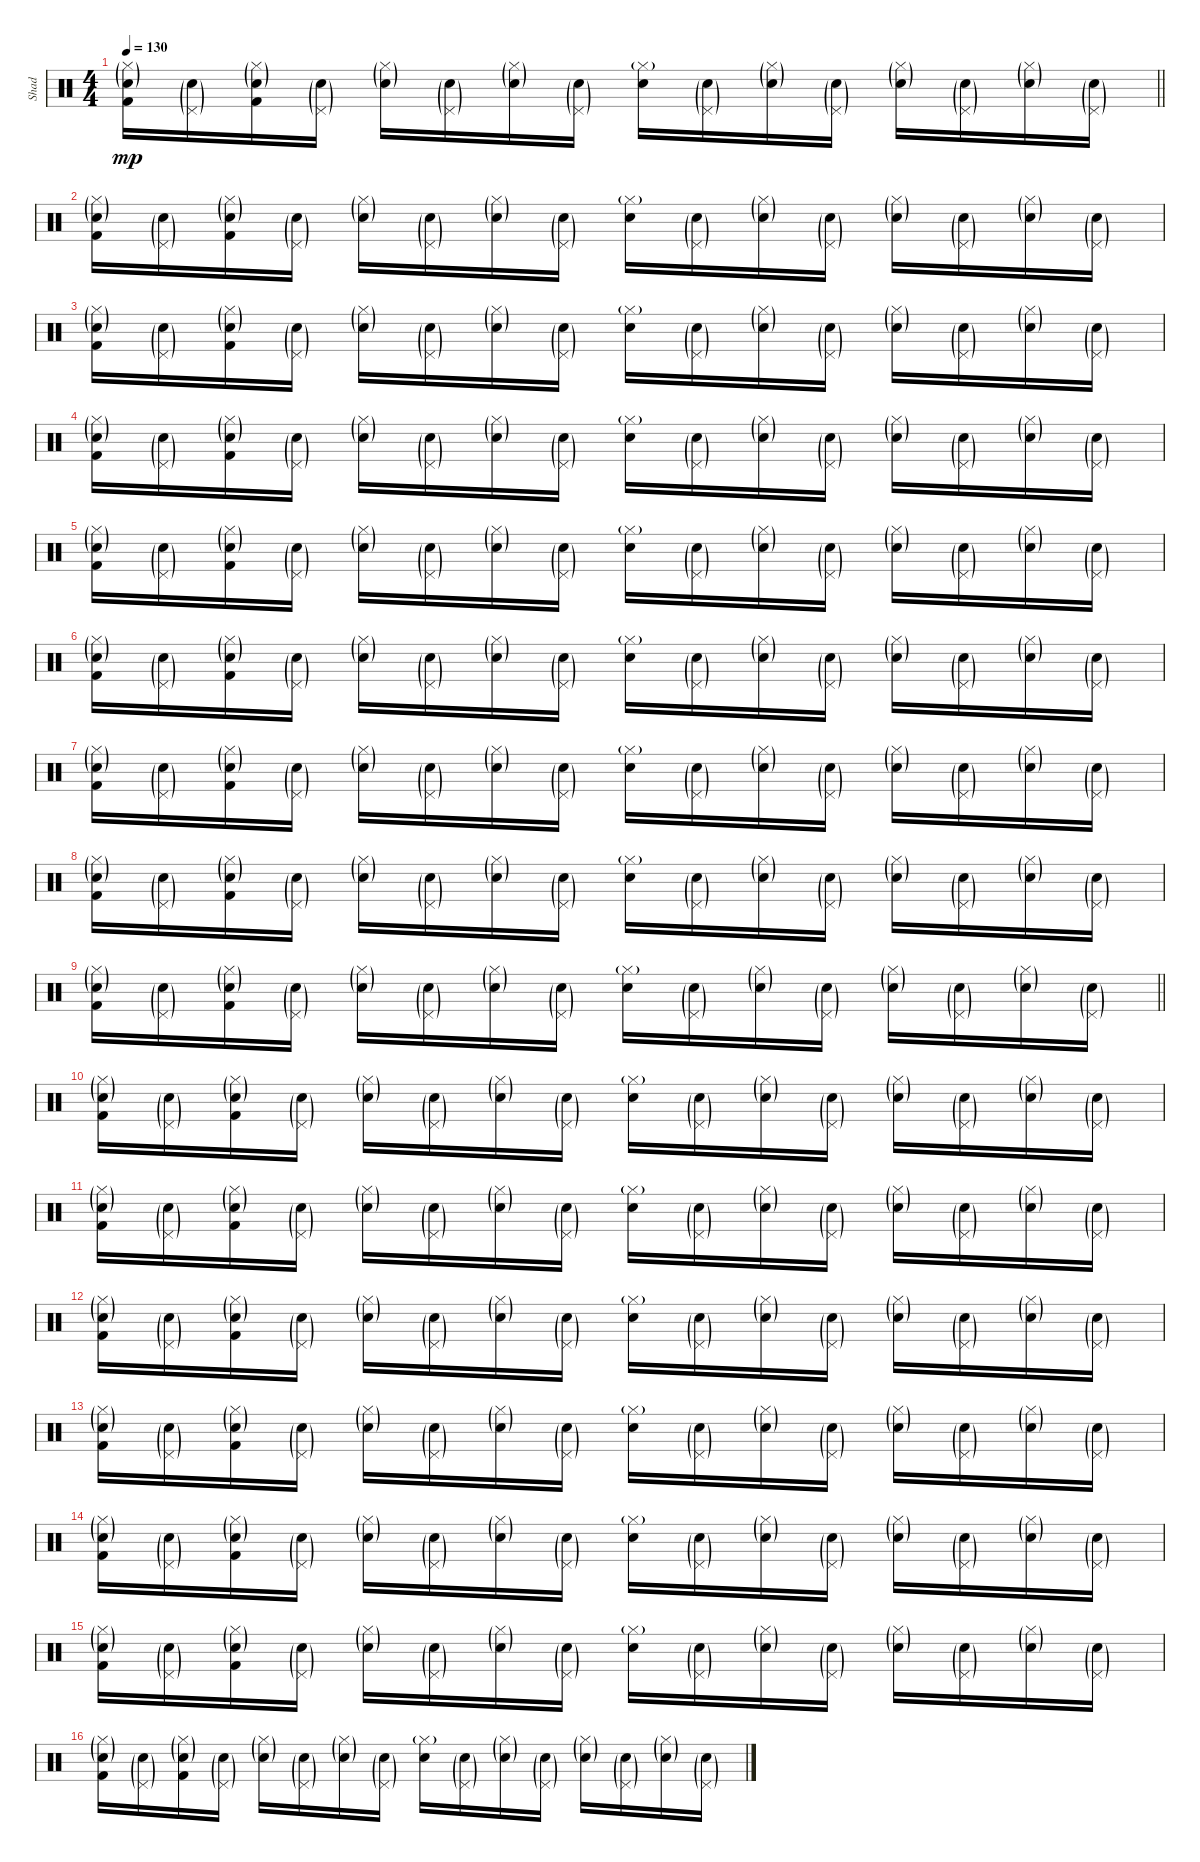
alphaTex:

\track ("Shad" "Shad") {instrument percussion}
\staff {score}
\articulation defaults
\ts (4 4)
\tempo 130
\clef neutral
\barLineRight lightlight
\ks c
("Hi-Hat (closed)"{g} "Electric Snare (hit)"{g} "Kick (hit) 2").16{dy mp} ("Pedal Hi-Hat (hit)"{g} "Electric Snare (hit)"{g}).16 ("Hi-Hat (closed)"{g} "Electric Snare (hit)"{g} "Kick (hit) 2").16 ("Pedal Hi-Hat (hit)"{g} "Electric Snare (hit)"{g}).16 ("Hi-Hat (closed)"{g} "Electric Snare (hit)"{g}).16 ("Pedal Hi-Hat (hit)"{g} "Electric Snare (hit)"{g}).16 ("Hi-Hat (closed)"{g} "Electric Snare (hit)"{g}).16 ("Pedal Hi-Hat (hit)"{g} "Electric Snare (hit)"{g}).16 ("Hi-Hat (closed)"{g} "Electric Snare (hit)").16 ("Pedal Hi-Hat (hit)"{g} "Electric Snare (hit)"{g}).16 ("Hi-Hat (closed)"{g} "Electric Snare (hit)"{g}).16 ("Pedal Hi-Hat (hit)"{g} "Electric Snare (hit)"{g}).16 ("Hi-Hat (closed)"{g} "Electric Snare (hit)"{g}).16 ("Pedal Hi-Hat (hit)"{g} "Electric Snare (hit)"{g}).16 ("Hi-Hat (closed)"{g} "Electric Snare (hit)"{g}).16 ("Pedal Hi-Hat (hit)"{g} "Electric Snare (hit)"{g}).16 |
("Hi-Hat (closed)"{g} "Electric Snare (hit)"{g} "Kick (hit) 2").16 ("Pedal Hi-Hat (hit)"{g} "Electric Snare (hit)"{g}).16 ("Hi-Hat (closed)"{g} "Electric Snare (hit)"{g} "Kick (hit) 2").16 ("Pedal Hi-Hat (hit)"{g} "Electric Snare (hit)"{g}).16 ("Hi-Hat (closed)"{g} "Electric Snare (hit)"{g}).16 ("Pedal Hi-Hat (hit)"{g} "Electric Snare (hit)"{g}).16 ("Hi-Hat (closed)"{g} "Electric Snare (hit)"{g}).16 ("Pedal Hi-Hat (hit)"{g} "Electric Snare (hit)"{g}).16 ("Hi-Hat (closed)"{g} "Electric Snare (hit)").16 ("Pedal Hi-Hat (hit)"{g} "Electric Snare (hit)"{g}).16 ("Hi-Hat (closed)"{g} "Electric Snare (hit)"{g}).16 ("Pedal Hi-Hat (hit)"{g} "Electric Snare (hit)"{g}).16 ("Hi-Hat (closed)"{g} "Electric Snare (hit)"{g}).16 ("Pedal Hi-Hat (hit)"{g} "Electric Snare (hit)"{g}).16 ("Hi-Hat (closed)"{g} "Electric Snare (hit)"{g}).16 ("Pedal Hi-Hat (hit)"{g} "Electric Snare (hit)"{g}).16 |
("Hi-Hat (closed)"{g} "Electric Snare (hit)"{g} "Kick (hit) 2").16 ("Pedal Hi-Hat (hit)"{g} "Electric Snare (hit)"{g}).16 ("Hi-Hat (closed)"{g} "Electric Snare (hit)"{g} "Kick (hit) 2").16 ("Pedal Hi-Hat (hit)"{g} "Electric Snare (hit)"{g}).16 ("Hi-Hat (closed)"{g} "Electric Snare (hit)"{g}).16 ("Pedal Hi-Hat (hit)"{g} "Electric Snare (hit)"{g}).16 ("Hi-Hat (closed)"{g} "Electric Snare (hit)"{g}).16 ("Pedal Hi-Hat (hit)"{g} "Electric Snare (hit)"{g}).16 ("Hi-Hat (closed)"{g} "Electric Snare (hit)").16 ("Pedal Hi-Hat (hit)"{g} "Electric Snare (hit)"{g}).16 ("Hi-Hat (closed)"{g} "Electric Snare (hit)"{g}).16 ("Pedal Hi-Hat (hit)"{g} "Electric Snare (hit)"{g}).16 ("Hi-Hat (closed)"{g} "Electric Snare (hit)"{g}).16 ("Pedal Hi-Hat (hit)"{g} "Electric Snare (hit)"{g}).16 ("Hi-Hat (closed)"{g} "Electric Snare (hit)"{g}).16 ("Pedal Hi-Hat (hit)"{g} "Electric Snare (hit)"{g}).16 |
("Hi-Hat (closed)"{g} "Electric Snare (hit)"{g} "Kick (hit) 2").16 ("Pedal Hi-Hat (hit)"{g} "Electric Snare (hit)"{g}).16 ("Hi-Hat (closed)"{g} "Electric Snare (hit)"{g} "Kick (hit) 2").16 ("Pedal Hi-Hat (hit)"{g} "Electric Snare (hit)"{g}).16 ("Hi-Hat (closed)"{g} "Electric Snare (hit)"{g}).16 ("Pedal Hi-Hat (hit)"{g} "Electric Snare (hit)"{g}).16 ("Hi-Hat (closed)"{g} "Electric Snare (hit)"{g}).16 ("Pedal Hi-Hat (hit)"{g} "Electric Snare (hit)"{g}).16 ("Hi-Hat (closed)"{g} "Electric Snare (hit)").16 ("Pedal Hi-Hat (hit)"{g} "Electric Snare (hit)"{g}).16 ("Hi-Hat (closed)"{g} "Electric Snare (hit)"{g}).16 ("Pedal Hi-Hat (hit)"{g} "Electric Snare (hit)"{g}).16 ("Hi-Hat (closed)"{g} "Electric Snare (hit)"{g}).16 ("Pedal Hi-Hat (hit)"{g} "Electric Snare (hit)"{g}).16 ("Hi-Hat (closed)"{g} "Electric Snare (hit)"{g}).16 ("Pedal Hi-Hat (hit)"{g} "Electric Snare (hit)"{g}).16 |
("Hi-Hat (closed)"{g} "Electric Snare (hit)"{g} "Kick (hit) 2").16 ("Pedal Hi-Hat (hit)"{g} "Electric Snare (hit)"{g}).16 ("Hi-Hat (closed)"{g} "Electric Snare (hit)"{g} "Kick (hit) 2").16 ("Pedal Hi-Hat (hit)"{g} "Electric Snare (hit)"{g}).16 ("Hi-Hat (closed)"{g} "Electric Snare (hit)"{g}).16 ("Pedal Hi-Hat (hit)"{g} "Electric Snare (hit)"{g}).16 ("Hi-Hat (closed)"{g} "Electric Snare (hit)"{g}).16 ("Pedal Hi-Hat (hit)"{g} "Electric Snare (hit)"{g}).16 ("Hi-Hat (closed)"{g} "Electric Snare (hit)").16 ("Pedal Hi-Hat (hit)"{g} "Electric Snare (hit)"{g}).16 ("Hi-Hat (closed)"{g} "Electric Snare (hit)"{g}).16 ("Pedal Hi-Hat (hit)"{g} "Electric Snare (hit)"{g}).16 ("Hi-Hat (closed)"{g} "Electric Snare (hit)"{g}).16 ("Pedal Hi-Hat (hit)"{g} "Electric Snare (hit)"{g}).16 ("Hi-Hat (closed)"{g} "Electric Snare (hit)"{g}).16 ("Pedal Hi-Hat (hit)"{g} "Electric Snare (hit)"{g}).16 |
("Hi-Hat (closed)"{g} "Electric Snare (hit)"{g} "Kick (hit) 2").16 ("Pedal Hi-Hat (hit)"{g} "Electric Snare (hit)"{g}).16 ("Hi-Hat (closed)"{g} "Electric Snare (hit)"{g} "Kick (hit) 2").16 ("Pedal Hi-Hat (hit)"{g} "Electric Snare (hit)"{g}).16 ("Hi-Hat (closed)"{g} "Electric Snare (hit)"{g}).16 ("Pedal Hi-Hat (hit)"{g} "Electric Snare (hit)"{g}).16 ("Hi-Hat (closed)"{g} "Electric Snare (hit)"{g}).16 ("Pedal Hi-Hat (hit)"{g} "Electric Snare (hit)"{g}).16 ("Hi-Hat (closed)"{g} "Electric Snare (hit)").16 ("Pedal Hi-Hat (hit)"{g} "Electric Snare (hit)"{g}).16 ("Hi-Hat (closed)"{g} "Electric Snare (hit)"{g}).16 ("Pedal Hi-Hat (hit)"{g} "Electric Snare (hit)"{g}).16 ("Hi-Hat (closed)"{g} "Electric Snare (hit)"{g}).16 ("Pedal Hi-Hat (hit)"{g} "Electric Snare (hit)"{g}).16 ("Hi-Hat (closed)"{g} "Electric Snare (hit)"{g}).16 ("Pedal Hi-Hat (hit)"{g} "Electric Snare (hit)"{g}).16 |
("Hi-Hat (closed)"{g} "Electric Snare (hit)"{g} "Kick (hit) 2").16 ("Pedal Hi-Hat (hit)"{g} "Electric Snare (hit)"{g}).16 ("Hi-Hat (closed)"{g} "Electric Snare (hit)"{g} "Kick (hit) 2").16 ("Pedal Hi-Hat (hit)"{g} "Electric Snare (hit)"{g}).16 ("Hi-Hat (closed)"{g} "Electric Snare (hit)"{g}).16 ("Pedal Hi-Hat (hit)"{g} "Electric Snare (hit)"{g}).16 ("Hi-Hat (closed)"{g} "Electric Snare (hit)"{g}).16 ("Pedal Hi-Hat (hit)"{g} "Electric Snare (hit)"{g}).16 ("Hi-Hat (closed)"{g} "Electric Snare (hit)").16 ("Pedal Hi-Hat (hit)"{g} "Electric Snare (hit)"{g}).16 ("Hi-Hat (closed)"{g} "Electric Snare (hit)"{g}).16 ("Pedal Hi-Hat (hit)"{g} "Electric Snare (hit)"{g}).16 ("Hi-Hat (closed)"{g} "Electric Snare (hit)"{g}).16 ("Pedal Hi-Hat (hit)"{g} "Electric Snare (hit)"{g}).16 ("Hi-Hat (closed)"{g} "Electric Snare (hit)"{g}).16 ("Pedal Hi-Hat (hit)"{g} "Electric Snare (hit)"{g}).16 |
("Hi-Hat (closed)"{g} "Electric Snare (hit)"{g} "Kick (hit) 2").16 ("Pedal Hi-Hat (hit)"{g} "Electric Snare (hit)"{g}).16 ("Hi-Hat (closed)"{g} "Electric Snare (hit)"{g} "Kick (hit) 2").16 ("Pedal Hi-Hat (hit)"{g} "Electric Snare (hit)"{g}).16 ("Hi-Hat (closed)"{g} "Electric Snare (hit)"{g}).16 ("Pedal Hi-Hat (hit)"{g} "Electric Snare (hit)"{g}).16 ("Hi-Hat (closed)"{g} "Electric Snare (hit)"{g}).16 ("Pedal Hi-Hat (hit)"{g} "Electric Snare (hit)"{g}).16 ("Hi-Hat (closed)"{g} "Electric Snare (hit)").16 ("Pedal Hi-Hat (hit)"{g} "Electric Snare (hit)"{g}).16 ("Hi-Hat (closed)"{g} "Electric Snare (hit)"{g}).16 ("Pedal Hi-Hat (hit)"{g} "Electric Snare (hit)"{g}).16 ("Hi-Hat (closed)"{g} "Electric Snare (hit)"{g}).16 ("Pedal Hi-Hat (hit)"{g} "Electric Snare (hit)"{g}).16 ("Hi-Hat (closed)"{g} "Electric Snare (hit)"{g}).16 ("Pedal Hi-Hat (hit)"{g} "Electric Snare (hit)"{g}).16 |
\barLineRight lightlight
("Hi-Hat (closed)"{g} "Electric Snare (hit)"{g} "Kick (hit) 2").16 ("Pedal Hi-Hat (hit)"{g} "Electric Snare (hit)"{g}).16 ("Hi-Hat (closed)"{g} "Electric Snare (hit)"{g} "Kick (hit) 2").16 ("Pedal Hi-Hat (hit)"{g} "Electric Snare (hit)"{g}).16 ("Hi-Hat (closed)"{g} "Electric Snare (hit)"{g}).16 ("Pedal Hi-Hat (hit)"{g} "Electric Snare (hit)"{g}).16 ("Hi-Hat (closed)"{g} "Electric Snare (hit)"{g}).16 ("Pedal Hi-Hat (hit)"{g} "Electric Snare (hit)"{g}).16 ("Hi-Hat (closed)"{g} "Electric Snare (hit)").16 ("Pedal Hi-Hat (hit)"{g} "Electric Snare (hit)"{g}).16 ("Hi-Hat (closed)"{g} "Electric Snare (hit)"{g}).16 ("Pedal Hi-Hat (hit)"{g} "Electric Snare (hit)"{g}).16 ("Hi-Hat (closed)"{g} "Electric Snare (hit)"{g}).16 ("Pedal Hi-Hat (hit)"{g} "Electric Snare (hit)"{g}).16 ("Hi-Hat (closed)"{g} "Electric Snare (hit)"{g}).16 ("Pedal Hi-Hat (hit)"{g} "Electric Snare (hit)"{g}).16 |
("Hi-Hat (closed)"{g} "Electric Snare (hit)"{g} "Kick (hit) 2").16 ("Pedal Hi-Hat (hit)"{g} "Electric Snare (hit)"{g}).16 ("Hi-Hat (closed)"{g} "Electric Snare (hit)"{g} "Kick (hit) 2").16 ("Pedal Hi-Hat (hit)"{g} "Electric Snare (hit)"{g}).16 ("Hi-Hat (closed)"{g} "Electric Snare (hit)"{g}).16 ("Pedal Hi-Hat (hit)"{g} "Electric Snare (hit)"{g}).16 ("Hi-Hat (closed)"{g} "Electric Snare (hit)"{g}).16 ("Pedal Hi-Hat (hit)"{g} "Electric Snare (hit)"{g}).16 ("Hi-Hat (closed)"{g} "Electric Snare (hit)").16 ("Pedal Hi-Hat (hit)"{g} "Electric Snare (hit)"{g}).16 ("Hi-Hat (closed)"{g} "Electric Snare (hit)"{g}).16 ("Pedal Hi-Hat (hit)"{g} "Electric Snare (hit)"{g}).16 ("Hi-Hat (closed)"{g} "Electric Snare (hit)"{g}).16 ("Pedal Hi-Hat (hit)"{g} "Electric Snare (hit)"{g}).16 ("Hi-Hat (closed)"{g} "Electric Snare (hit)"{g}).16 ("Pedal Hi-Hat (hit)"{g} "Electric Snare (hit)"{g}).16 |
("Hi-Hat (closed)"{g} "Electric Snare (hit)"{g} "Kick (hit) 2").16 ("Pedal Hi-Hat (hit)"{g} "Electric Snare (hit)"{g}).16 ("Hi-Hat (closed)"{g} "Electric Snare (hit)"{g} "Kick (hit) 2").16 ("Pedal Hi-Hat (hit)"{g} "Electric Snare (hit)"{g}).16 ("Hi-Hat (closed)"{g} "Electric Snare (hit)"{g}).16 ("Pedal Hi-Hat (hit)"{g} "Electric Snare (hit)"{g}).16 ("Hi-Hat (closed)"{g} "Electric Snare (hit)"{g}).16 ("Pedal Hi-Hat (hit)"{g} "Electric Snare (hit)"{g}).16 ("Hi-Hat (closed)"{g} "Electric Snare (hit)").16 ("Pedal Hi-Hat (hit)"{g} "Electric Snare (hit)"{g}).16 ("Hi-Hat (closed)"{g} "Electric Snare (hit)"{g}).16 ("Pedal Hi-Hat (hit)"{g} "Electric Snare (hit)"{g}).16 ("Hi-Hat (closed)"{g} "Electric Snare (hit)"{g}).16 ("Pedal Hi-Hat (hit)"{g} "Electric Snare (hit)"{g}).16 ("Hi-Hat (closed)"{g} "Electric Snare (hit)"{g}).16 ("Pedal Hi-Hat (hit)"{g} "Electric Snare (hit)"{g}).16 |
("Hi-Hat (closed)"{g} "Electric Snare (hit)"{g} "Kick (hit) 2").16 ("Pedal Hi-Hat (hit)"{g} "Electric Snare (hit)"{g}).16 ("Hi-Hat (closed)"{g} "Electric Snare (hit)"{g} "Kick (hit) 2").16 ("Pedal Hi-Hat (hit)"{g} "Electric Snare (hit)"{g}).16 ("Hi-Hat (closed)"{g} "Electric Snare (hit)"{g}).16 ("Pedal Hi-Hat (hit)"{g} "Electric Snare (hit)"{g}).16 ("Hi-Hat (closed)"{g} "Electric Snare (hit)"{g}).16 ("Pedal Hi-Hat (hit)"{g} "Electric Snare (hit)"{g}).16 ("Hi-Hat (closed)"{g} "Electric Snare (hit)").16 ("Pedal Hi-Hat (hit)"{g} "Electric Snare (hit)"{g}).16 ("Hi-Hat (closed)"{g} "Electric Snare (hit)"{g}).16 ("Pedal Hi-Hat (hit)"{g} "Electric Snare (hit)"{g}).16 ("Hi-Hat (closed)"{g} "Electric Snare (hit)"{g}).16 ("Pedal Hi-Hat (hit)"{g} "Electric Snare (hit)"{g}).16 ("Hi-Hat (closed)"{g} "Electric Snare (hit)"{g}).16 ("Pedal Hi-Hat (hit)"{g} "Electric Snare (hit)"{g}).16 |
("Hi-Hat (closed)"{g} "Electric Snare (hit)"{g} "Kick (hit) 2").16 ("Pedal Hi-Hat (hit)"{g} "Electric Snare (hit)"{g}).16 ("Hi-Hat (closed)"{g} "Electric Snare (hit)"{g} "Kick (hit) 2").16 ("Pedal Hi-Hat (hit)"{g} "Electric Snare (hit)"{g}).16 ("Hi-Hat (closed)"{g} "Electric Snare (hit)"{g}).16 ("Pedal Hi-Hat (hit)"{g} "Electric Snare (hit)"{g}).16 ("Hi-Hat (closed)"{g} "Electric Snare (hit)"{g}).16 ("Pedal Hi-Hat (hit)"{g} "Electric Snare (hit)"{g}).16 ("Hi-Hat (closed)"{g} "Electric Snare (hit)").16 ("Pedal Hi-Hat (hit)"{g} "Electric Snare (hit)"{g}).16 ("Hi-Hat (closed)"{g} "Electric Snare (hit)"{g}).16 ("Pedal Hi-Hat (hit)"{g} "Electric Snare (hit)"{g}).16 ("Hi-Hat (closed)"{g} "Electric Snare (hit)"{g}).16 ("Pedal Hi-Hat (hit)"{g} "Electric Snare (hit)"{g}).16 ("Hi-Hat (closed)"{g} "Electric Snare (hit)"{g}).16 ("Pedal Hi-Hat (hit)"{g} "Electric Snare (hit)"{g}).16 |
("Hi-Hat (closed)"{g} "Electric Snare (hit)"{g} "Kick (hit) 2").16 ("Pedal Hi-Hat (hit)"{g} "Electric Snare (hit)"{g}).16 ("Hi-Hat (closed)"{g} "Electric Snare (hit)"{g} "Kick (hit) 2").16 ("Pedal Hi-Hat (hit)"{g} "Electric Snare (hit)"{g}).16 ("Hi-Hat (closed)"{g} "Electric Snare (hit)"{g}).16 ("Pedal Hi-Hat (hit)"{g} "Electric Snare (hit)"{g}).16 ("Hi-Hat (closed)"{g} "Electric Snare (hit)"{g}).16 ("Pedal Hi-Hat (hit)"{g} "Electric Snare (hit)"{g}).16 ("Hi-Hat (closed)"{g} "Electric Snare (hit)").16 ("Pedal Hi-Hat (hit)"{g} "Electric Snare (hit)"{g}).16 ("Hi-Hat (closed)"{g} "Electric Snare (hit)"{g}).16 ("Pedal Hi-Hat (hit)"{g} "Electric Snare (hit)"{g}).16 ("Hi-Hat (closed)"{g} "Electric Snare (hit)"{g}).16 ("Pedal Hi-Hat (hit)"{g} "Electric Snare (hit)"{g}).16 ("Hi-Hat (closed)"{g} "Electric Snare (hit)"{g}).16 ("Pedal Hi-Hat (hit)"{g} "Electric Snare (hit)"{g}).16 |
("Hi-Hat (closed)"{g} "Electric Snare (hit)"{g} "Kick (hit) 2").16 ("Pedal Hi-Hat (hit)"{g} "Electric Snare (hit)"{g}).16 ("Hi-Hat (closed)"{g} "Electric Snare (hit)"{g} "Kick (hit) 2").16 ("Pedal Hi-Hat (hit)"{g} "Electric Snare (hit)"{g}).16 ("Hi-Hat (closed)"{g} "Electric Snare (hit)"{g}).16 ("Pedal Hi-Hat (hit)"{g} "Electric Snare (hit)"{g}).16 ("Hi-Hat (closed)"{g} "Electric Snare (hit)"{g}).16 ("Pedal Hi-Hat (hit)"{g} "Electric Snare (hit)"{g}).16 ("Hi-Hat (closed)"{g} "Electric Snare (hit)").16 ("Pedal Hi-Hat (hit)"{g} "Electric Snare (hit)"{g}).16 ("Hi-Hat (closed)"{g} "Electric Snare (hit)"{g}).16 ("Pedal Hi-Hat (hit)"{g} "Electric Snare (hit)"{g}).16 ("Hi-Hat (closed)"{g} "Electric Snare (hit)"{g}).16 ("Pedal Hi-Hat (hit)"{g} "Electric Snare (hit)"{g}).16 ("Hi-Hat (closed)"{g} "Electric Snare (hit)"{g}).16 ("Pedal Hi-Hat (hit)"{g} "Electric Snare (hit)"{g}).16 |
("Hi-Hat (closed)"{g} "Electric Snare (hit)"{g} "Kick (hit) 2").16 ("Pedal Hi-Hat (hit)"{g} "Electric Snare (hit)"{g}).16 ("Hi-Hat (closed)"{g} "Electric Snare (hit)"{g} "Kick (hit) 2").16 ("Pedal Hi-Hat (hit)"{g} "Electric Snare (hit)"{g}).16 ("Hi-Hat (closed)"{g} "Electric Snare (hit)"{g}).16 ("Pedal Hi-Hat (hit)"{g} "Electric Snare (hit)"{g}).16 ("Hi-Hat (closed)"{g} "Electric Snare (hit)"{g}).16 ("Pedal Hi-Hat (hit)"{g} "Electric Snare (hit)"{g}).16 ("Hi-Hat (closed)"{g} "Electric Snare (hit)").16 ("Pedal Hi-Hat (hit)"{g} "Electric Snare (hit)"{g}).16 ("Hi-Hat (closed)"{g} "Electric Snare (hit)"{g}).16 ("Pedal Hi-Hat (hit)"{g} "Electric Snare (hit)"{g}).16 ("Hi-Hat (closed)"{g} "Electric Snare (hit)"{g}).16 ("Pedal Hi-Hat (hit)"{g} "Electric Snare (hit)"{g}).16 ("Hi-Hat (closed)"{g} "Electric Snare (hit)"{g}).16 ("Pedal Hi-Hat (hit)"{g} "Electric Snare (hit)"{g}).16
